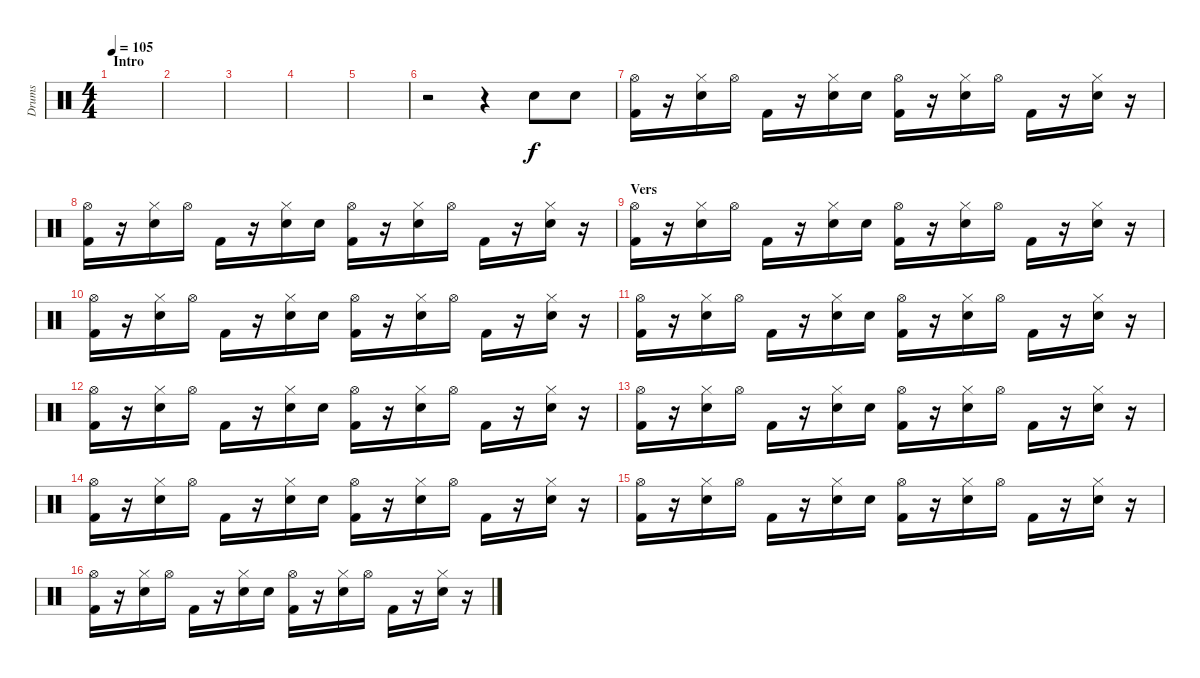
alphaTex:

\track ("Drums" "Drums") {instrument percussion}
\staff {score}
\articulation defaults
\ts (4 4)
\section ("" "Intro")
\tempo 105
\clef neutral
\ks c
|
|
|
|
|
r.2 r.4 "Snare (hit) 2".8 "Electric Snare (hit)".8 |
("Hi-Hat (open)" "Kick (hit) 2").16 r.16 ("Hi-Hat (closed)" "Snare (hit) 2").16 "Hi-Hat (open)".16 "Kick (hit) 2".16 r.16 ("Hi-Hat (closed)" "Snare (hit) 2").16 "Snare (hit) 2".16 ("Hi-Hat (open)" "Kick (hit) 2").16 r.16 ("Hi-Hat (closed)" "Snare (hit) 2").16 "Hi-Hat (open)".16 "Kick (hit) 2".16 r.16 ("Hi-Hat (closed)" "Snare (hit) 2").16 r.16 |
("Hi-Hat (open)" "Kick (hit) 2").16 r.16 ("Hi-Hat (closed)" "Snare (hit) 2").16 "Hi-Hat (open)".16 "Kick (hit) 2".16 r.16 ("Hi-Hat (closed)" "Snare (hit) 2").16 "Snare (hit) 2".16 ("Hi-Hat (open)" "Kick (hit) 2").16 r.16 ("Hi-Hat (closed)" "Snare (hit) 2").16 "Hi-Hat (open)".16 "Kick (hit) 2".16 r.16 ("Hi-Hat (closed)" "Snare (hit) 2").16 r.16 |
\section ("" "Vers")
("Hi-Hat (open)" "Kick (hit) 2").16 r.16 ("Hi-Hat (closed)" "Snare (hit) 2").16 "Hi-Hat (open)".16 "Kick (hit) 2".16 r.16 ("Hi-Hat (closed)" "Snare (hit) 2").16 "Snare (hit) 2".16 ("Hi-Hat (open)" "Kick (hit) 2").16 r.16 ("Hi-Hat (closed)" "Snare (hit) 2").16 "Hi-Hat (open)".16 "Kick (hit) 2".16 r.16 ("Hi-Hat (closed)" "Snare (hit) 2").16 r.16 |
("Hi-Hat (open)" "Kick (hit) 2").16 r.16 ("Hi-Hat (closed)" "Snare (hit) 2").16 "Hi-Hat (open)".16 "Kick (hit) 2".16 r.16 ("Hi-Hat (closed)" "Snare (hit) 2").16 "Snare (hit) 2".16 ("Hi-Hat (open)" "Kick (hit) 2").16 r.16 ("Hi-Hat (closed)" "Snare (hit) 2").16 "Hi-Hat (open)".16 "Kick (hit) 2".16 r.16 ("Hi-Hat (closed)" "Snare (hit) 2").16 r.16 |
("Hi-Hat (open)" "Kick (hit) 2").16 r.16 ("Hi-Hat (closed)" "Snare (hit) 2").16 "Hi-Hat (open)".16 "Kick (hit) 2".16 r.16 ("Hi-Hat (closed)" "Snare (hit) 2").16 "Snare (hit) 2".16 ("Hi-Hat (open)" "Kick (hit) 2").16 r.16 ("Hi-Hat (closed)" "Snare (hit) 2").16 "Hi-Hat (open)".16 "Kick (hit) 2".16 r.16 ("Hi-Hat (closed)" "Snare (hit) 2").16 r.16 |
("Hi-Hat (open)" "Kick (hit) 2").16 r.16 ("Hi-Hat (closed)" "Snare (hit) 2").16 "Hi-Hat (open)".16 "Kick (hit) 2".16 r.16 ("Hi-Hat (closed)" "Snare (hit) 2").16 "Snare (hit) 2".16 ("Hi-Hat (open)" "Kick (hit) 2").16 r.16 ("Hi-Hat (closed)" "Snare (hit) 2").16 "Hi-Hat (open)".16 "Kick (hit) 2".16 r.16 ("Hi-Hat (closed)" "Snare (hit) 2").16 r.16 |
("Hi-Hat (open)" "Kick (hit) 2").16 r.16 ("Hi-Hat (closed)" "Snare (hit) 2").16 "Hi-Hat (open)".16 "Kick (hit) 2".16 r.16 ("Hi-Hat (closed)" "Snare (hit) 2").16 "Snare (hit) 2".16 ("Hi-Hat (open)" "Kick (hit) 2").16 r.16 ("Hi-Hat (closed)" "Snare (hit) 2").16 "Hi-Hat (open)".16 "Kick (hit) 2".16 r.16 ("Hi-Hat (closed)" "Snare (hit) 2").16 r.16 |
("Hi-Hat (open)" "Kick (hit) 2").16 r.16 ("Hi-Hat (closed)" "Snare (hit) 2").16 "Hi-Hat (open)".16 "Kick (hit) 2".16 r.16 ("Hi-Hat (closed)" "Snare (hit) 2").16 "Snare (hit) 2".16 ("Hi-Hat (open)" "Kick (hit) 2").16 r.16 ("Hi-Hat (closed)" "Snare (hit) 2").16 "Hi-Hat (open)".16 "Kick (hit) 2".16 r.16 ("Hi-Hat (closed)" "Snare (hit) 2").16 r.16 |
("Hi-Hat (open)" "Kick (hit) 2").16 r.16 ("Hi-Hat (closed)" "Snare (hit) 2").16 "Hi-Hat (open)".16 "Kick (hit) 2".16 r.16 ("Hi-Hat (closed)" "Snare (hit) 2").16 "Snare (hit) 2".16 ("Hi-Hat (open)" "Kick (hit) 2").16 r.16 ("Hi-Hat (closed)" "Snare (hit) 2").16 "Hi-Hat (open)".16 "Kick (hit) 2".16 r.16 ("Hi-Hat (closed)" "Snare (hit) 2").16 r.16 |
("Hi-Hat (open)" "Kick (hit) 2").16 r.16 ("Hi-Hat (closed)" "Snare (hit) 2").16 "Hi-Hat (open)".16 "Kick (hit) 2".16 r.16 ("Hi-Hat (closed)" "Snare (hit) 2").16 "Snare (hit) 2".16 ("Hi-Hat (open)" "Kick (hit) 2").16 r.16 ("Hi-Hat (closed)" "Snare (hit) 2").16 "Hi-Hat (open)".16 "Kick (hit) 2".16 r.16 ("Hi-Hat (closed)" "Snare (hit) 2").16 r.16
